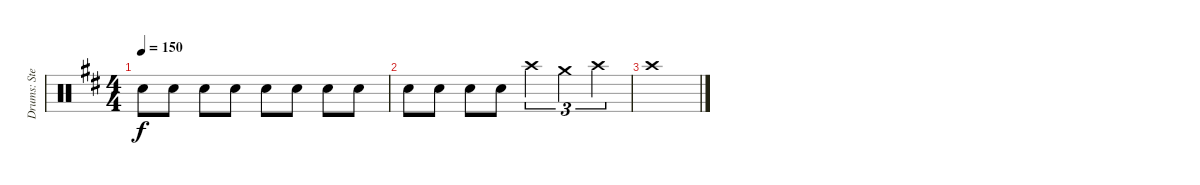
\track ("Drums: Stefan Svantesson" "Drums: Ste") {instrument percussion}
\staff {score}
\articulation defaults
\ts (4 4)
\tempo 150
\clef neutral
\ks d "Electric Snare (hit)".8{dy f} "Electric Snare (hit)".8 "Electric Snare (hit)".8 "Electric Snare (hit)".8 "Electric Snare (hit)".8 "Electric Snare (hit)".8 "Electric Snare (hit)".8 "Electric Snare (hit)".8
|
"Electric Snare (hit)".8 "Electric Snare (hit)".8 "Electric Snare (hit)".8 "Electric Snare (hit)".8 "Crash high (hit)".4{tu (3 2)} "Crash medium (hit)".4{tu (3 2)} "Crash high (hit)".4{tu (3 2)} |
"Crash high (hit)".1
